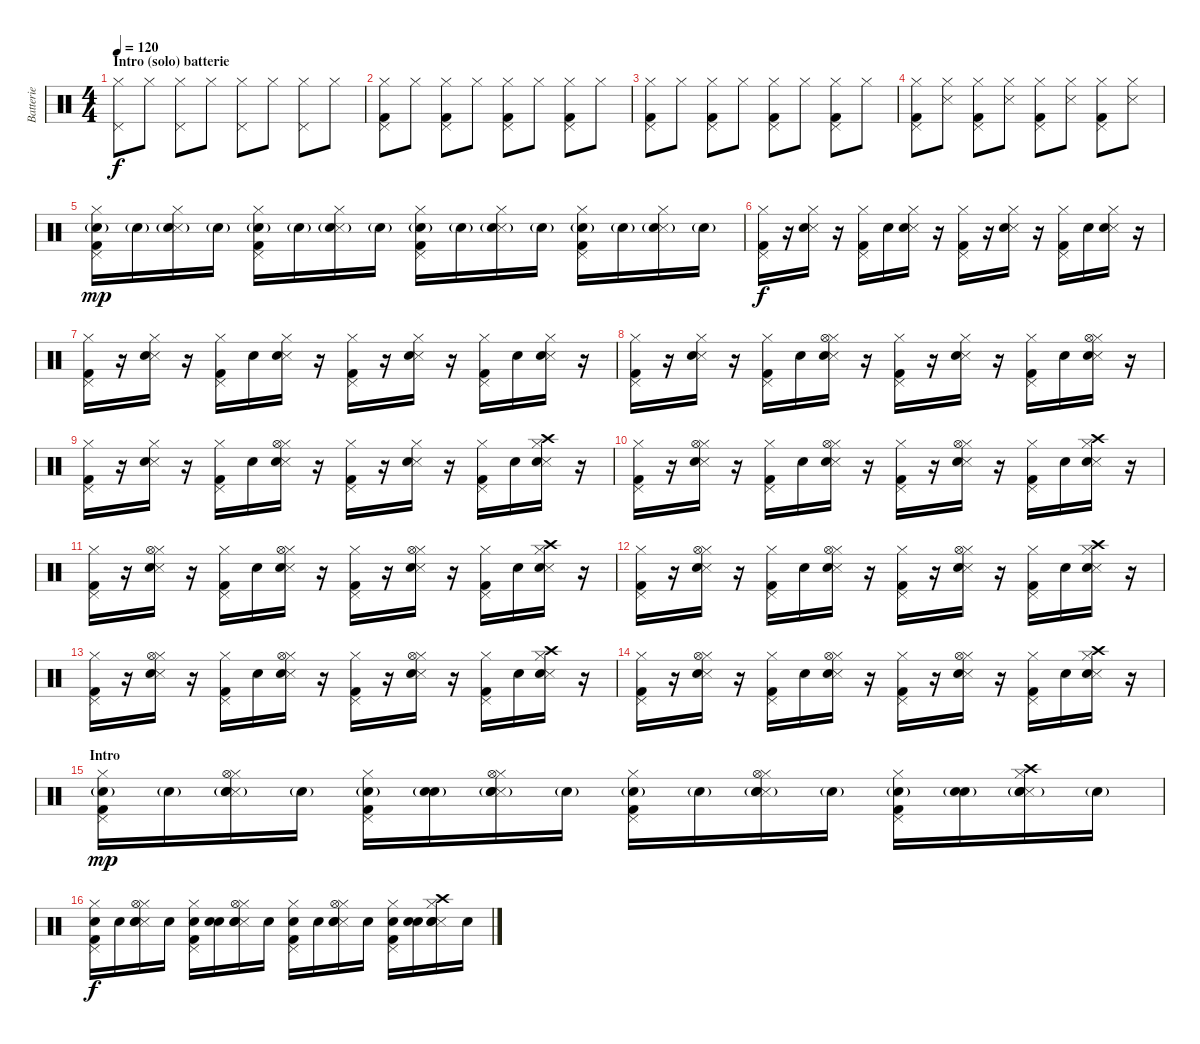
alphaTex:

\track ("Batterie" "Batterie") {instrument percussion}
\staff {score}
\articulation defaults
\ts (4 4)
\section ("" "Intro (solo) batterie")
\tempo 120
\clef neutral
\ks c
("Hi-Hat (closed)" "Pedal Hi-Hat (hit)").8{dy f} "Hi-Hat (closed)".8 ("Hi-Hat (closed)" "Pedal Hi-Hat (hit)").8 "Hi-Hat (closed)".8 ("Hi-Hat (closed)" "Pedal Hi-Hat (hit)").8 "Hi-Hat (closed)".8 ("Hi-Hat (closed)" "Pedal Hi-Hat (hit)").8 "Hi-Hat (closed)".8 |
("Hi-Hat (closed)" "Pedal Hi-Hat (hit)" "Kick (hit) 2").8 "Hi-Hat (closed)".8 ("Hi-Hat (closed)" "Pedal Hi-Hat (hit)" "Kick (hit) 2").8 "Hi-Hat (closed)".8 ("Hi-Hat (closed)" "Pedal Hi-Hat (hit)" "Kick (hit) 2").8 "Hi-Hat (closed)".8 ("Hi-Hat (closed)" "Pedal Hi-Hat (hit)" "Kick (hit) 2").8 "Hi-Hat (closed)".8 |
("Hi-Hat (closed)" "Pedal Hi-Hat (hit)" "Kick (hit) 2").8 "Hi-Hat (closed)".8 ("Hi-Hat (closed)" "Pedal Hi-Hat (hit)" "Kick (hit) 2").8 "Hi-Hat (closed)".8 ("Hi-Hat (closed)" "Pedal Hi-Hat (hit)" "Kick (hit) 2").8 "Hi-Hat (closed)".8 ("Hi-Hat (closed)" "Pedal Hi-Hat (hit)" "Kick (hit) 2").8 "Hi-Hat (closed)".8 |
("Hi-Hat (closed)" "Pedal Hi-Hat (hit)" "Kick (hit) 2").8 ("Hi-Hat (closed)" "Snare (side stick) 3").8 ("Hi-Hat (closed)" "Pedal Hi-Hat (hit)" "Kick (hit) 2").8 ("Hi-Hat (closed)" "Snare (side stick) 3").8 ("Hi-Hat (closed)" "Pedal Hi-Hat (hit)" "Kick (hit) 2").8 ("Hi-Hat (closed)" "Snare (side stick) 3").8 ("Hi-Hat (closed)" "Pedal Hi-Hat (hit)" "Kick (hit) 2").8 ("Hi-Hat (closed)" "Snare (side stick) 3").8 |
("Hi-Hat (closed)" "Pedal Hi-Hat (hit)" "Kick (hit) 2" "Snare (hit) 2"{g}).16{dy mp} "Snare (hit) 2"{g}.16 ("Hi-Hat (closed)" "Snare (side stick) 3" "Snare (hit) 2"{g}).16 "Snare (hit) 2"{g}.16 ("Hi-Hat (closed)" "Pedal Hi-Hat (hit)" "Kick (hit) 2" "Snare (hit) 2"{g}).16 "Snare (hit) 2"{g}.16 ("Hi-Hat (closed)" "Snare (side stick) 3" "Snare (hit) 2"{g}).16 "Snare (hit) 2"{g}.16 ("Hi-Hat (closed)" "Pedal Hi-Hat (hit)" "Kick (hit) 2" "Snare (hit) 2"{g}).16 "Snare (hit) 2"{g}.16 ("Hi-Hat (closed)" "Snare (side stick) 3" "Snare (hit) 2"{g}).16 "Snare (hit) 2"{g}.16 ("Hi-Hat (closed)" "Pedal Hi-Hat (hit)" "Kick (hit) 2" "Snare (hit) 2"{g}).16 "Snare (hit) 2"{g}.16 ("Hi-Hat (closed)" "Snare (side stick) 3" "Snare (hit) 2"{g}).16 "Snare (hit) 2"{g}.16 |
("Hi-Hat (closed)" "Pedal Hi-Hat (hit)" "Kick (hit) 2").16{dy f} r.16 ("Hi-Hat (closed)" "Snare (side stick) 3" "Snare (hit) 2").16 r.16 ("Hi-Hat (closed)" "Pedal Hi-Hat (hit)" "Kick (hit) 2").16 "Snare (hit) 2".16 ("Hi-Hat (closed)" "Snare (side stick) 3" "Snare (hit) 2").16 r.16 ("Hi-Hat (closed)" "Pedal Hi-Hat (hit)" "Kick (hit) 2").16 r.16 ("Hi-Hat (closed)" "Snare (side stick) 3" "Snare (hit) 2").16 r.16 ("Hi-Hat (closed)" "Pedal Hi-Hat (hit)" "Kick (hit) 2").16 "Snare (hit) 2".16 ("Hi-Hat (closed)" "Snare (side stick) 3" "Snare (hit) 2").16 r.16 |
("Hi-Hat (closed)" "Pedal Hi-Hat (hit)" "Kick (hit) 2").16 r.16 ("Hi-Hat (closed)" "Snare (side stick) 3" "Snare (hit) 2").16 r.16 ("Hi-Hat (closed)" "Pedal Hi-Hat (hit)" "Kick (hit) 2").16 "Snare (hit) 2".16 ("Hi-Hat (closed)" "Snare (side stick) 3" "Snare (hit) 2").16 r.16 ("Hi-Hat (closed)" "Pedal Hi-Hat (hit)" "Kick (hit) 2").16 r.16 ("Hi-Hat (closed)" "Snare (side stick) 3" "Snare (hit) 2").16 r.16 ("Hi-Hat (closed)" "Pedal Hi-Hat (hit)" "Kick (hit) 2").16 "Snare (hit) 2".16 ("Hi-Hat (closed)" "Snare (side stick) 3" "Snare (hit) 2").16 r.16 |
("Hi-Hat (closed)" "Pedal Hi-Hat (hit)" "Kick (hit) 2").16 r.16 ("Hi-Hat (closed)" "Snare (side stick) 3" "Snare (hit) 2").16 r.16 ("Hi-Hat (closed)" "Pedal Hi-Hat (hit)" "Kick (hit) 2").16 "Snare (hit) 2".16 ("Hi-Hat (closed)" "Snare (side stick) 3" "Snare (hit) 2" "Hi-Hat (open)").16 r.16 ("Hi-Hat (closed)" "Pedal Hi-Hat (hit)" "Kick (hit) 2").16 r.16 ("Hi-Hat (closed)" "Snare (side stick) 3" "Snare (hit) 2").16 r.16 ("Hi-Hat (closed)" "Pedal Hi-Hat (hit)" "Kick (hit) 2").16 "Snare (hit) 2".16 ("Hi-Hat (closed)" "Snare (side stick) 3" "Snare (hit) 2" "Hi-Hat (open)").16 r.16 |
("Hi-Hat (closed)" "Pedal Hi-Hat (hit)" "Kick (hit) 2").16 r.16 ("Hi-Hat (closed)" "Snare (side stick) 3" "Snare (hit) 2").16 r.16 ("Hi-Hat (closed)" "Pedal Hi-Hat (hit)" "Kick (hit) 2").16 "Snare (hit) 2".16 ("Hi-Hat (closed)" "Snare (side stick) 3" "Snare (hit) 2" "Hi-Hat (open)").16 r.16 ("Hi-Hat (closed)" "Pedal Hi-Hat (hit)" "Kick (hit) 2").16 r.16 ("Hi-Hat (closed)" "Snare (side stick) 3" "Snare (hit) 2").16 r.16 ("Hi-Hat (closed)" "Pedal Hi-Hat (hit)" "Kick (hit) 2").16 "Snare (hit) 2".16 ("Hi-Hat (closed)" "Snare (side stick) 3" "Snare (hit) 2" "Crash high (hit)").16 r.16 |
("Hi-Hat (closed)" "Pedal Hi-Hat (hit)" "Kick (hit) 2").16 r.16 ("Hi-Hat (closed)" "Snare (side stick) 3" "Snare (hit) 2" "Hi-Hat (open)").16 r.16 ("Hi-Hat (closed)" "Pedal Hi-Hat (hit)" "Kick (hit) 2").16 "Snare (hit) 2".16 ("Hi-Hat (closed)" "Snare (side stick) 3" "Snare (hit) 2" "Hi-Hat (open)").16 r.16 ("Hi-Hat (closed)" "Pedal Hi-Hat (hit)" "Kick (hit) 2").16 r.16 ("Hi-Hat (closed)" "Snare (side stick) 3" "Snare (hit) 2" "Hi-Hat (open)").16 r.16 ("Hi-Hat (closed)" "Pedal Hi-Hat (hit)" "Kick (hit) 2").16 "Snare (hit) 2".16 ("Hi-Hat (closed)" "Snare (side stick) 3" "Snare (hit) 2" "Crash high (hit)").16 r.16 |
("Hi-Hat (closed)" "Pedal Hi-Hat (hit)" "Kick (hit) 2").16 r.16 ("Hi-Hat (closed)" "Snare (side stick) 3" "Snare (hit) 2" "Hi-Hat (open)").16 r.16 ("Hi-Hat (closed)" "Pedal Hi-Hat (hit)" "Kick (hit) 2").16 "Snare (hit) 2".16 ("Hi-Hat (closed)" "Snare (side stick) 3" "Snare (hit) 2" "Hi-Hat (open)").16 r.16 ("Hi-Hat (closed)" "Pedal Hi-Hat (hit)" "Kick (hit) 2").16 r.16 ("Hi-Hat (closed)" "Snare (side stick) 3" "Snare (hit) 2" "Hi-Hat (open)").16 r.16 ("Hi-Hat (closed)" "Pedal Hi-Hat (hit)" "Kick (hit) 2").16 "Snare (hit) 2".16 ("Hi-Hat (closed)" "Snare (side stick) 3" "Snare (hit) 2" "Crash high (hit)").16 r.16 |
("Hi-Hat (closed)" "Pedal Hi-Hat (hit)" "Kick (hit) 2").16 r.16 ("Hi-Hat (closed)" "Snare (side stick) 3" "Snare (hit) 2" "Hi-Hat (open)").16 r.16 ("Hi-Hat (closed)" "Pedal Hi-Hat (hit)" "Kick (hit) 2").16 "Snare (hit) 2".16 ("Hi-Hat (closed)" "Snare (side stick) 3" "Snare (hit) 2" "Hi-Hat (open)").16 r.16 ("Hi-Hat (closed)" "Pedal Hi-Hat (hit)" "Kick (hit) 2").16 r.16 ("Hi-Hat (closed)" "Snare (side stick) 3" "Snare (hit) 2" "Hi-Hat (open)").16 r.16 ("Hi-Hat (closed)" "Pedal Hi-Hat (hit)" "Kick (hit) 2").16 "Snare (hit) 2".16 ("Hi-Hat (closed)" "Snare (side stick) 3" "Snare (hit) 2" "Crash high (hit)").16 r.16 |
("Hi-Hat (closed)" "Pedal Hi-Hat (hit)" "Kick (hit) 2").16 r.16 ("Hi-Hat (closed)" "Snare (side stick) 3" "Snare (hit) 2" "Hi-Hat (open)").16 r.16 ("Hi-Hat (closed)" "Pedal Hi-Hat (hit)" "Kick (hit) 2").16 "Snare (hit) 2".16 ("Hi-Hat (closed)" "Snare (side stick) 3" "Snare (hit) 2" "Hi-Hat (open)").16 r.16 ("Hi-Hat (closed)" "Pedal Hi-Hat (hit)" "Kick (hit) 2").16 r.16 ("Hi-Hat (closed)" "Snare (side stick) 3" "Snare (hit) 2" "Hi-Hat (open)").16 r.16 ("Hi-Hat (closed)" "Pedal Hi-Hat (hit)" "Kick (hit) 2").16 "Snare (hit) 2".16 ("Hi-Hat (closed)" "Snare (side stick) 3" "Snare (hit) 2" "Crash high (hit)").16 r.16 |
("Hi-Hat (closed)" "Pedal Hi-Hat (hit)" "Kick (hit) 2").16 r.16 ("Hi-Hat (closed)" "Snare (side stick) 3" "Snare (hit) 2" "Hi-Hat (open)").16 r.16 ("Hi-Hat (closed)" "Pedal Hi-Hat (hit)" "Kick (hit) 2").16 "Snare (hit) 2".16 ("Hi-Hat (closed)" "Snare (side stick) 3" "Snare (hit) 2" "Hi-Hat (open)").16 r.16 ("Hi-Hat (closed)" "Pedal Hi-Hat (hit)" "Kick (hit) 2").16 r.16 ("Hi-Hat (closed)" "Snare (side stick) 3" "Snare (hit) 2" "Hi-Hat (open)").16 r.16 ("Hi-Hat (closed)" "Pedal Hi-Hat (hit)" "Kick (hit) 2").16 "Snare (hit) 2".16 ("Hi-Hat (closed)" "Snare (side stick) 3" "Snare (hit) 2" "Crash high (hit)").16 r.16 |
\section ("" "Intro")
("Hi-Hat (closed)" "Pedal Hi-Hat (hit)" "Kick (hit) 2" "Electric Snare (hit)"{g}).16{dy mp} "Electric Snare (hit)"{g}.16 ("Hi-Hat (closed)" "Snare (side stick) 3" "Snare (hit) 2" "Hi-Hat (open)" "Electric Snare (hit)"{g}).16 "Electric Snare (hit)"{g}.16 ("Hi-Hat (closed)" "Pedal Hi-Hat (hit)" "Kick (hit) 2" "Electric Snare (hit)"{g}).16 ("Snare (hit) 2" "Electric Snare (hit)"{g}).16 ("Hi-Hat (closed)" "Snare (side stick) 3" "Snare (hit) 2" "Hi-Hat (open)" "Electric Snare (hit)"{g}).16 "Electric Snare (hit)"{g}.16 ("Hi-Hat (closed)" "Pedal Hi-Hat (hit)" "Kick (hit) 2" "Electric Snare (hit)"{g}).16 "Electric Snare (hit)"{g}.16 ("Hi-Hat (closed)" "Snare (side stick) 3" "Snare (hit) 2" "Hi-Hat (open)" "Electric Snare (hit)"{g}).16 "Electric Snare (hit)"{g}.16 ("Hi-Hat (closed)" "Pedal Hi-Hat (hit)" "Kick (hit) 2" "Electric Snare (hit)"{g}).16 ("Snare (hit) 2" "Electric Snare (hit)"{g}).16 ("Hi-Hat (closed)" "Snare (side stick) 3" "Snare (hit) 2" "Crash high (hit)" "Electric Snare (hit)"{g}).16 "Electric Snare (hit)"{g}.16 |
("Hi-Hat (closed)" "Pedal Hi-Hat (hit)" "Kick (hit) 2" "Electric Snare (hit)").16{dy f} "Electric Snare (hit)".16 ("Hi-Hat (closed)" "Snare (side stick) 3" "Snare (hit) 2" "Hi-Hat (open)" "Electric Snare (hit)").16 "Electric Snare (hit)".16 ("Hi-Hat (closed)" "Pedal Hi-Hat (hit)" "Kick (hit) 2" "Electric Snare (hit)").16 ("Snare (hit) 2" "Electric Snare (hit)").16 ("Hi-Hat (closed)" "Snare (side stick) 3" "Snare (hit) 2" "Hi-Hat (open)" "Electric Snare (hit)").16 "Electric Snare (hit)".16 ("Hi-Hat (closed)" "Pedal Hi-Hat (hit)" "Kick (hit) 2" "Electric Snare (hit)").16 "Electric Snare (hit)".16 ("Hi-Hat (closed)" "Snare (side stick) 3" "Snare (hit) 2" "Hi-Hat (open)" "Electric Snare (hit)").16 "Electric Snare (hit)".16 ("Hi-Hat (closed)" "Pedal Hi-Hat (hit)" "Kick (hit) 2" "Electric Snare (hit)").16 ("Snare (hit) 2" "Electric Snare (hit)").16 ("Hi-Hat (closed)" "Snare (side stick) 3" "Snare (hit) 2" "Crash high (hit)" "Electric Snare (hit)").16 "Electric Snare (hit)".16
